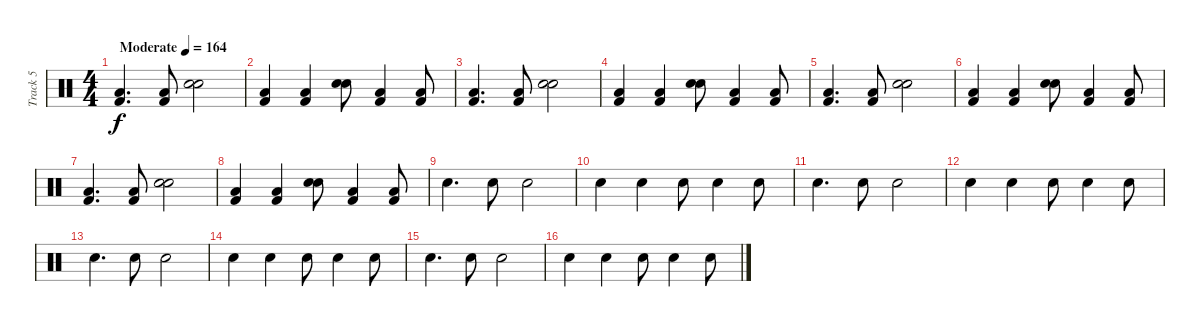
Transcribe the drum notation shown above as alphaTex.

\track ("Track 5" "Track 5") {instrument percussion}
\staff {score}
\articulation defaults
\ts (4 4)
\tempo (164 "Moderate")
\clef neutral
\ks c
("Low Floor Tom (hit)" "Kick (hit) 2").4{d dy f} ("Low Floor Tom (hit)" "Kick (hit) 2").8 ("Hand Clap (hit)" "Electric Snare (hit)").2 |
("Low Floor Tom (hit)" "Kick (hit) 2").4 ("Low Floor Tom (hit)" "Kick (hit) 2").4 ("Hand Clap (hit)" "Electric Snare (hit)").8 ("Low Floor Tom (hit)" "Kick (hit) 2").4 ("Low Floor Tom (hit)" "Kick (hit) 2").8 |
("Low Floor Tom (hit)" "Kick (hit) 2").4{d} ("Low Floor Tom (hit)" "Kick (hit) 2").8 ("Hand Clap (hit)" "Electric Snare (hit)").2 |
("Low Floor Tom (hit)" "Kick (hit) 2").4 ("Low Floor Tom (hit)" "Kick (hit) 2").4 ("Hand Clap (hit)" "Electric Snare (hit)").8 ("Low Floor Tom (hit)" "Kick (hit) 2").4 ("Low Floor Tom (hit)" "Kick (hit) 2").8 |
("Low Floor Tom (hit)" "Kick (hit) 2").4{d} ("Low Floor Tom (hit)" "Kick (hit) 2").8 ("Hand Clap (hit)" "Electric Snare (hit)").2 |
("Low Floor Tom (hit)" "Kick (hit) 2").4 ("Low Floor Tom (hit)" "Kick (hit) 2").4 ("Hand Clap (hit)" "Electric Snare (hit)").8 ("Low Floor Tom (hit)" "Kick (hit) 2").4 ("Low Floor Tom (hit)" "Kick (hit) 2").8 |
("Low Floor Tom (hit)" "Kick (hit) 2").4{d} ("Low Floor Tom (hit)" "Kick (hit) 2").8 ("Hand Clap (hit)" "Electric Snare (hit)").2 |
("Low Floor Tom (hit)" "Kick (hit) 2").4 ("Low Floor Tom (hit)" "Kick (hit) 2").4 ("Hand Clap (hit)" "Electric Snare (hit)").8 ("Low Floor Tom (hit)" "Kick (hit) 2").4 ("Low Floor Tom (hit)" "Kick (hit) 2").8 |
"Electric Snare (hit)".4{d} "Electric Snare (hit)".8 "Hand Clap (hit)".2 |
"Electric Snare (hit)".4 "Electric Snare (hit)".4 "Hand Clap (hit)".8 "Electric Snare (hit)".4 "Electric Snare (hit)".8 |
"Electric Snare (hit)".4{d} "Electric Snare (hit)".8 "Hand Clap (hit)".2 |
"Electric Snare (hit)".4 "Electric Snare (hit)".4 "Hand Clap (hit)".8 "Electric Snare (hit)".4 "Electric Snare (hit)".8 |
"Electric Snare (hit)".4{d} "Electric Snare (hit)".8 "Hand Clap (hit)".2 |
"Electric Snare (hit)".4 "Electric Snare (hit)".4 "Hand Clap (hit)".8 "Electric Snare (hit)".4 "Electric Snare (hit)".8 |
"Electric Snare (hit)".4{d} "Electric Snare (hit)".8 "Hand Clap (hit)".2 |
"Electric Snare (hit)".4 "Electric Snare (hit)".4 "Hand Clap (hit)".8 "Electric Snare (hit)".4 "Electric Snare (hit)".8
